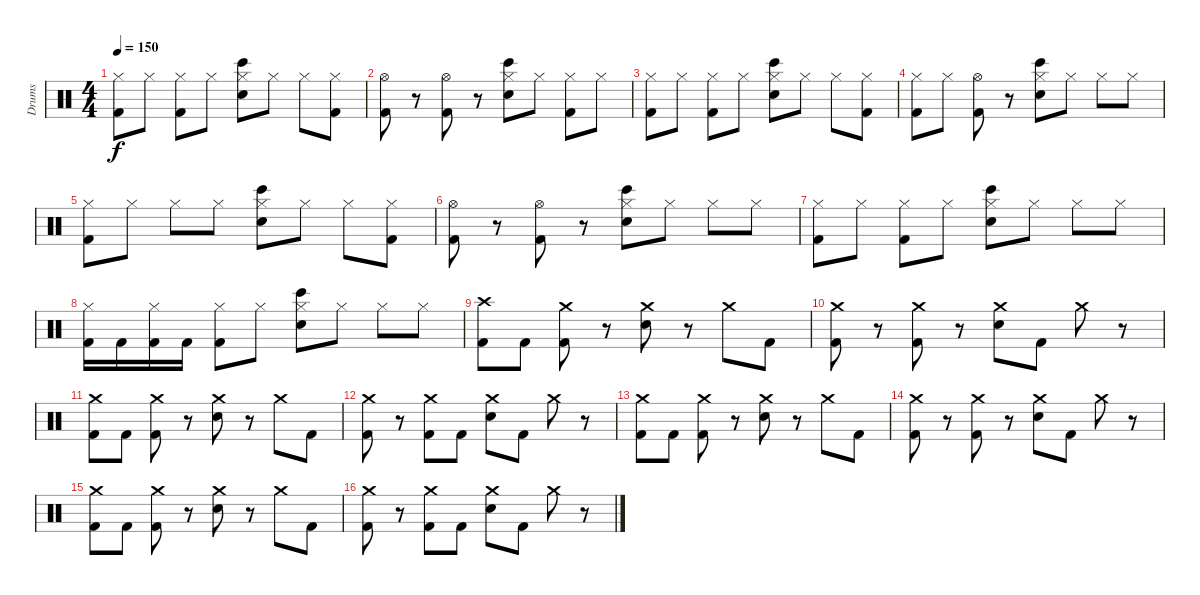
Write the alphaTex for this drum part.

\track ("Drums" "Drums") {instrument percussion}
\staff {score}
\articulation defaults
\ts (4 4)
\tempo 150
\clef neutral
\ks c
("Hi-Hat (closed)" "Kick (hit) 2").8{dy f} "Hi-Hat (closed)".8 ("Hi-Hat (closed)" "Kick (hit) 2").8 "Hi-Hat (closed)".8 ("Hi-Hat (closed)" "Bongo High (hit)" "Electric Snare (hit)").8 "Hi-Hat (closed)".8 "Hi-Hat (closed)".8 ("Hi-Hat (closed)" "Kick (hit) 2").8 |
("Hi-Hat (open)" "Kick (hit) 2").8 r.8 ("Hi-Hat (open)" "Kick (hit) 2").8 r.8 ("Hi-Hat (closed)" "Bongo High (hit)" "Electric Snare (hit)").8 "Hi-Hat (closed)".8 ("Hi-Hat (closed)" "Kick (hit) 2").8 "Hi-Hat (closed)".8 |
("Hi-Hat (closed)" "Kick (hit) 2").8 "Hi-Hat (closed)".8 ("Hi-Hat (closed)" "Kick (hit) 2").8 "Hi-Hat (closed)".8 ("Hi-Hat (closed)" "Bongo High (hit)" "Electric Snare (hit)").8 "Hi-Hat (closed)".8 "Hi-Hat (closed)".8 ("Hi-Hat (closed)" "Kick (hit) 2").8 |
("Hi-Hat (closed)" "Kick (hit) 2").8 "Hi-Hat (closed)".8 ("Hi-Hat (open)" "Kick (hit) 2").8 r.8 ("Hi-Hat (closed)" "Bongo High (hit)" "Electric Snare (hit)").8 "Hi-Hat (closed)".8 "Hi-Hat (closed)".8 "Hi-Hat (closed)".8 |
("Hi-Hat (closed)" "Kick (hit) 2").8 "Hi-Hat (closed)".8 "Hi-Hat (closed)".8 "Hi-Hat (closed)".8 ("Hi-Hat (closed)" "Bongo High (hit)" "Electric Snare (hit)").8 "Hi-Hat (closed)".8 "Hi-Hat (closed)".8 ("Hi-Hat (closed)" "Kick (hit) 2").8 |
("Hi-Hat (open)" "Kick (hit) 2").8 r.8 ("Hi-Hat (open)" "Kick (hit) 2").8 r.8 ("Hi-Hat (closed)" "Bongo High (hit)" "Electric Snare (hit)").8 "Hi-Hat (closed)".8 "Hi-Hat (closed)".8 "Hi-Hat (closed)".8 |
("Hi-Hat (closed)" "Kick (hit) 2").8 "Hi-Hat (closed)".8 ("Hi-Hat (closed)" "Kick (hit) 2").8 "Hi-Hat (closed)".8 ("Hi-Hat (closed)" "Bongo High (hit)" "Electric Snare (hit)").8 "Hi-Hat (closed)".8 "Hi-Hat (closed)".8 "Hi-Hat (closed)".8 |
("Hi-Hat (closed)" "Kick (hit) 2").16 "Kick (hit) 2".16 ("Hi-Hat (closed)" "Kick (hit) 2").16 "Kick (hit) 2".16 ("Hi-Hat (closed)" "Kick (hit) 2").8 "Hi-Hat (closed)".8 ("Hi-Hat (closed)" "Bongo High (hit)" "Electric Snare (hit)").8 "Hi-Hat (closed)".8 "Hi-Hat (closed)".8 "Hi-Hat (closed)".8 |
("Crash high (hit)" "Kick (hit) 2").8 "Kick (hit) 2".8 ("Crash medium (hit)" "Kick (hit) 2").8 r.8 ("Crash medium (hit)" "Electric Snare (hit)").8 r.8 "Crash medium (hit)".8 "Kick (hit) 2".8 |
("Crash medium (hit)" "Kick (hit) 2").8 r.8 ("Crash medium (hit)" "Kick (hit) 2").8 r.8 ("Crash medium (hit)" "Electric Snare (hit)").8 "Kick (hit) 2".8 "Crash medium (hit)".8 r.8 |
("Crash medium (hit)" "Kick (hit) 2").8 "Kick (hit) 2".8 ("Crash medium (hit)" "Kick (hit) 2").8 r.8 ("Crash medium (hit)" "Electric Snare (hit)").8 r.8 "Crash medium (hit)".8 "Kick (hit) 2".8 |
("Crash medium (hit)" "Kick (hit) 2").8 r.8 ("Crash medium (hit)" "Kick (hit) 2").8 "Kick (hit) 2".8 ("Crash medium (hit)" "Electric Snare (hit)").8 "Kick (hit) 2".8 "Crash medium (hit)".8 r.8 |
("Crash medium (hit)" "Kick (hit) 2").8 "Kick (hit) 2".8 ("Crash medium (hit)" "Kick (hit) 2").8 r.8 ("Crash medium (hit)" "Electric Snare (hit)").8 r.8 "Crash medium (hit)".8 "Kick (hit) 2".8 |
("Crash medium (hit)" "Kick (hit) 2").8 r.8 ("Crash medium (hit)" "Kick (hit) 2").8 r.8 ("Crash medium (hit)" "Electric Snare (hit)").8 "Kick (hit) 2".8 "Crash medium (hit)".8 r.8 |
("Crash medium (hit)" "Kick (hit) 2").8 "Kick (hit) 2".8 ("Crash medium (hit)" "Kick (hit) 2").8 r.8 ("Crash medium (hit)" "Electric Snare (hit)").8 r.8 "Crash medium (hit)".8 "Kick (hit) 2".8 |
("Crash medium (hit)" "Kick (hit) 2").8 r.8 ("Crash medium (hit)" "Kick (hit) 2").8 "Kick (hit) 2".8 ("Crash medium (hit)" "Electric Snare (hit)").8 "Kick (hit) 2".8 "Crash medium (hit)".8 r.8
